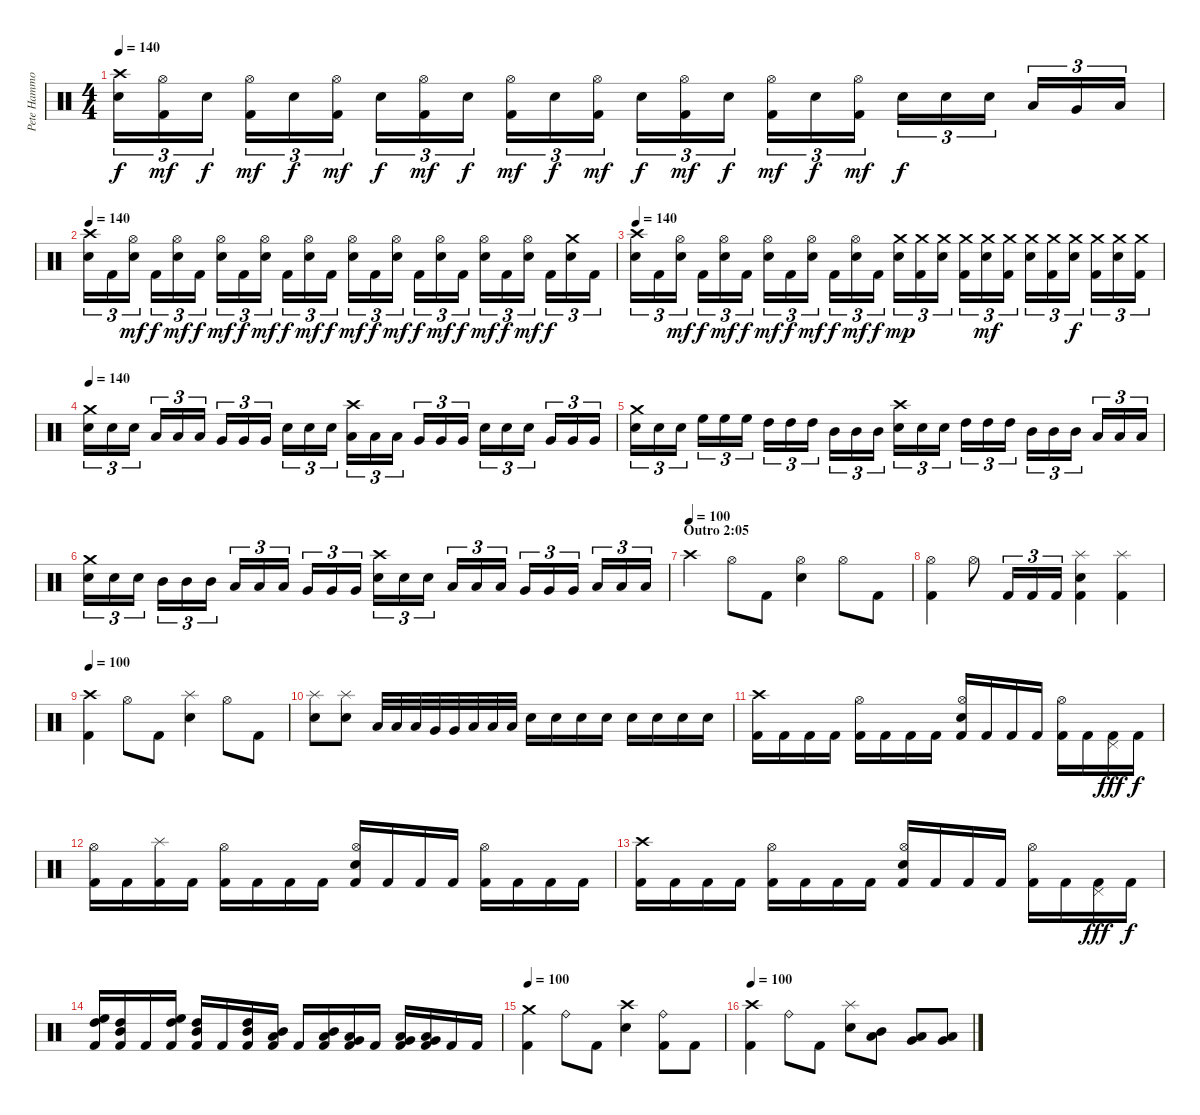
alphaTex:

\track ("Pete Hammoura" "Pete Hammo") {instrument percussion}
\staff {score}
\articulation defaults
\ts (4 4)
\tempo 140
\clef neutral
\ks c
("Crash high (hit)" "Electric Snare (hit)").16{tu (3 2) dy f} ("Hi-Hat (open)" "Kick (hit) 2").16{tu (3 2) dy mf} "Electric Snare (hit)".16{tu (3 2) dy f} ("Hi-Hat (open)" "Kick (hit) 2").16{tu (3 2) dy mf} "Electric Snare (hit)".16{tu (3 2) dy f} ("Hi-Hat (open)" "Kick (hit) 2").16{tu (3 2) dy mf} "Electric Snare (hit)".16{tu (3 2) dy f} ("Hi-Hat (open)" "Kick (hit) 2").16{tu (3 2) dy mf} "Electric Snare (hit)".16{tu (3 2) dy f} ("Hi-Hat (open)" "Kick (hit) 2").16{tu (3 2) dy mf} "Electric Snare (hit)".16{tu (3 2) dy f} ("Hi-Hat (open)" "Kick (hit) 2").16{tu (3 2) dy mf} "Electric Snare (hit)".16{tu (3 2) dy f} ("Hi-Hat (open)" "Kick (hit) 2").16{tu (3 2) dy mf} "Electric Snare (hit)".16{tu (3 2) dy f} ("Hi-Hat (open)" "Kick (hit) 2").16{tu (3 2) dy mf} "Electric Snare (hit)".16{tu (3 2) dy f} ("Hi-Hat (open)" "Kick (hit) 2").16{tu (3 2) dy mf} "Electric Snare (hit)".16{tu (3 2) dy f} "Electric Snare (hit)".16{tu (3 2)} "Electric Snare (hit)".16{tu (3 2)} "Low Tom (hit)".16{tu (3 2)} "Very Low Tom (hit)".16{tu (3 2)} "Low Floor Tom (hit)".16{tu (3 2)} |
\tempo 140
("Crash high (hit)" "Electric Snare (hit)").16{tu (3 2)} "Kick (hit) 2".16{tu (3 2)} ("Hi-Hat (open)" "Electric Snare (hit)").16{tu (3 2) dy mf} "Kick (hit) 2".16{tu (3 2) dy f} ("Hi-Hat (open)" "Electric Snare (hit)").16{tu (3 2) dy mf} "Kick (hit) 2".16{tu (3 2) dy f} ("Hi-Hat (open)" "Electric Snare (hit)").16{tu (3 2) dy mf} "Kick (hit) 2".16{tu (3 2) dy f} ("Hi-Hat (open)" "Electric Snare (hit)").16{tu (3 2) dy mf} "Kick (hit) 2".16{tu (3 2) dy f} ("Hi-Hat (open)" "Electric Snare (hit)").16{tu (3 2) dy mf} "Kick (hit) 2".16{tu (3 2) dy f} ("Hi-Hat (open)" "Electric Snare (hit)").16{tu (3 2) dy mf} "Kick (hit) 2".16{tu (3 2) dy f} ("Hi-Hat (open)" "Electric Snare (hit)").16{tu (3 2) dy mf} "Kick (hit) 2".16{tu (3 2) dy f} ("Hi-Hat (open)" "Electric Snare (hit)").16{tu (3 2) dy mf} "Kick (hit) 2".16{tu (3 2) dy f} ("Hi-Hat (open)" "Electric Snare (hit)").16{tu (3 2) dy mf} "Kick (hit) 2".16{tu (3 2) dy f} ("Hi-Hat (open)" "Electric Snare (hit)").16{tu (3 2) dy mf} "Kick (hit) 2".16{tu (3 2) dy f} ("Crash medium (hit)" "Electric Snare (hit)").16{tu (3 2)} "Kick (hit) 2".16{tu (3 2)} |
\tempo 140
("Crash high (hit)" "Electric Snare (hit)").16{tu (3 2)} "Kick (hit) 2".16{tu (3 2)} ("Hi-Hat (open)" "Electric Snare (hit)").16{tu (3 2) dy mf} "Kick (hit) 2".16{tu (3 2) dy f} ("Hi-Hat (open)" "Electric Snare (hit)").16{tu (3 2) dy mf} "Kick (hit) 2".16{tu (3 2) dy f} ("Hi-Hat (open)" "Electric Snare (hit)").16{tu (3 2) dy mf} "Kick (hit) 2".16{tu (3 2) dy f} ("Hi-Hat (open)" "Electric Snare (hit)").16{tu (3 2) dy mf} "Kick (hit) 2".16{tu (3 2) dy f} ("Hi-Hat (open)" "Electric Snare (hit)").16{tu (3 2) dy mf} "Kick (hit) 2".16{tu (3 2) dy f} ("Crash medium (hit)" "Electric Snare (hit)").16{tu (3 2) dy mp} ("Crash medium (hit)" "Kick (hit) 2").16{tu (3 2)} ("Crash medium (hit)" "Electric Snare (hit)").16{tu (3 2)} ("Crash medium (hit)" "Kick (hit) 2").16{tu (3 2)} ("Crash medium (hit)" "Electric Snare (hit)").16{tu (3 2) dy mf} ("Crash medium (hit)" "Kick (hit) 2").16{tu (3 2)} ("Crash medium (hit)" "Electric Snare (hit)").16{tu (3 2)} ("Crash medium (hit)" "Kick (hit) 2").16{tu (3 2)} ("Crash medium (hit)" "Electric Snare (hit)").16{tu (3 2) dy f} ("Crash medium (hit)" "Kick (hit) 2").16{tu (3 2)} ("Crash medium (hit)" "Electric Snare (hit)").16{tu (3 2)} ("Crash medium (hit)" "Kick (hit) 2").16{tu (3 2)} |
\tempo 140
("Crash medium (hit)" "Electric Snare (hit)").16{tu (3 2)} "Electric Snare (hit)".16{tu (3 2)} "Electric Snare (hit)".16{tu (3 2)} "Low Tom (hit)".16{tu (3 2)} "Low Tom (hit)".16{tu (3 2)} "Low Tom (hit)".16{tu (3 2)} "Very Low Tom (hit)".16{tu (3 2)} "Very Low Tom (hit)".16{tu (3 2)} "Very Low Tom (hit)".16{tu (3 2)} "Electric Snare (hit)".16{tu (3 2)} "Electric Snare (hit)".16{tu (3 2)} "Electric Snare (hit)".16{tu (3 2)} ("Crash high (hit)" "Low Tom (hit)").16{tu (3 2)} "Low Tom (hit)".16{tu (3 2)} "Low Tom (hit)".16{tu (3 2)} "Very Low Tom (hit)".16{tu (3 2)} "Very Low Tom (hit)".16{tu (3 2)} "Very Low Tom (hit)".16{tu (3 2)} "Electric Snare (hit)".16{tu (3 2)} "Electric Snare (hit)".16{tu (3 2)} "Electric Snare (hit)".16{tu (3 2)} "Very Low Tom (hit)".16{tu (3 2)} "Very Low Tom (hit)".16{tu (3 2)} "Very Low Tom (hit)".16{tu (3 2)} |
("Crash medium (hit)" "Electric Snare (hit)").16{tu (3 2)} "Electric Snare (hit)".16{tu (3 2)} "Electric Snare (hit)".16{tu (3 2)} "High Floor Tom (hit)".16{tu (3 2)} "High Floor Tom (hit)".16{tu (3 2)} "High Floor Tom (hit)".16{tu (3 2)} "High Tom (hit)".16{tu (3 2)} "High Tom (hit)".16{tu (3 2)} "High Tom (hit)".16{tu (3 2)} "Mid Tom (hit)".16{tu (3 2)} "Mid Tom (hit)".16{tu (3 2)} "Mid Tom (hit)".16{tu (3 2)} ("Crash high (hit)" "Electric Snare (hit)").16{tu (3 2)} "Electric Snare (hit)".16{tu (3 2)} "Electric Snare (hit)".16{tu (3 2)} "High Tom (hit)".16{tu (3 2)} "High Tom (hit)".16{tu (3 2)} "High Tom (hit)".16{tu (3 2)} "Mid Tom (hit)".16{tu (3 2)} "Mid Tom (hit)".16{tu (3 2)} "Mid Tom (hit)".16{tu (3 2)} "Low Tom (hit)".16{tu (3 2)} "Low Tom (hit)".16{tu (3 2)} "Low Tom (hit)".16{tu (3 2)} |
("Crash medium (hit)" "Electric Snare (hit)").16{tu (3 2)} "Electric Snare (hit)".16{tu (3 2)} "Electric Snare (hit)".16{tu (3 2)} "Mid Tom (hit)".16{tu (3 2)} "Mid Tom (hit)".16{tu (3 2)} "Mid Tom (hit)".16{tu (3 2)} "Low Tom (hit)".16{tu (3 2)} "Low Tom (hit)".16{tu (3 2)} "Low Tom (hit)".16{tu (3 2)} "Very Low Tom (hit)".16{tu (3 2)} "Very Low Tom (hit)".16{tu (3 2)} "Very Low Tom (hit)".16{tu (3 2)} ("Crash high (hit)" "Electric Snare (hit)").16{tu (3 2)} "Electric Snare (hit)".16{tu (3 2)} "Electric Snare (hit)".16{tu (3 2)} "Low Tom (hit)".16{tu (3 2)} "Low Tom (hit)".16{tu (3 2)} "Low Tom (hit)".16{tu (3 2)} "Very Low Tom (hit)".16{tu (3 2)} "Very Low Tom (hit)".16{tu (3 2)} "Very Low Tom (hit)".16{tu (3 2)} "Low Floor Tom (hit)".16{tu (3 2)} "Low Floor Tom (hit)".16{tu (3 2)} "Low Floor Tom (hit)".16{tu (3 2)} |
\section ("" "Outro 2:05")
\tempo (100)
"Crash high (hit)".4 "Hi-Hat (open)".8 "Kick (hit) 2".8 ("Hi-Hat (open)" "Electric Snare (hit)").4 "Hi-Hat (open)".8 "Kick (hit) 2".8 |
("Hi-Hat (open)" "Kick (hit) 2").4 "Hi-Hat (open)".8 "Kick (hit) 2".16{tu (3 2)} "Kick (hit) 2".16{tu (3 2)} "Kick (hit) 2".16{tu (3 2)} ("Splash (hit)" "Electric Snare (hit)" "Kick (hit) 2").4 ("Splash (hit)" "Kick (hit) 2").4 |
\tempo 100
("Crash high (hit)" "Kick (hit) 2").4 "Hi-Hat (open)".8 "Kick (hit) 2".8 ("Splash (hit)" "Electric Snare (hit)").4 "Hi-Hat (open)".8 "Kick (hit) 2".8 |
("Splash (hit)" "Electric Snare (hit)").8 ("Splash (hit)" "Electric Snare (hit)").8 "Low Tom (hit)".32 "Low Tom (hit)".32 "Low Tom (hit)".32 "Very Low Tom (hit)".32 "Very Low Tom (hit)".32 "Low Floor Tom (hit)".32 "Low Floor Tom (hit)".32 "Low Floor Tom (hit)".32 "Electric Snare (hit)".16 "Electric Snare (hit)".16 "Electric Snare (hit)".16 "Electric Snare (hit)".16 "Electric Snare (hit)".16 "Electric Snare (hit)".16 "Electric Snare (hit)".16 "Electric Snare (hit)".16 |
("Crash high (hit)" "Kick (hit) 2").16 "Kick (hit) 2".16 "Kick (hit) 2".16 "Kick (hit) 2".16 ("Hi-Hat (open)" "Kick (hit) 2").16 "Kick (hit) 2".16 "Kick (hit) 2".16 "Kick (hit) 2".16 ("Hi-Hat (open)" "Electric Snare (hit)" "Kick (hit) 2").16 "Kick (hit) 2".16 "Kick (hit) 2".16 "Kick (hit) 2".16 ("Hi-Hat (open)" "Kick (hit) 2").16 "Kick (hit) 2".16 ("Pedal Hi-Hat (hit)" "Kick (hit) 2").16{dy fff} "Kick (hit) 2".16{dy f} |
("Hi-Hat (open)" "Kick (hit) 2").16 "Kick (hit) 2".16 ("Splash (hit)" "Kick (hit) 2").16 "Kick (hit) 2".16 ("Hi-Hat (open)" "Kick (hit) 2").16 "Kick (hit) 2".16 "Kick (hit) 2".16 "Kick (hit) 2".16 ("Hi-Hat (open)" "Electric Snare (hit)" "Kick (hit) 2").16 "Kick (hit) 2".16 "Kick (hit) 2".16 "Kick (hit) 2".16 ("Hi-Hat (open)" "Kick (hit) 2").16 "Kick (hit) 2".16 "Kick (hit) 2".16 "Kick (hit) 2".16 |
("Crash high (hit)" "Kick (hit) 2").16 "Kick (hit) 2".16 "Kick (hit) 2".16 "Kick (hit) 2".16 ("Hi-Hat (open)" "Kick (hit) 2").16 "Kick (hit) 2".16 "Kick (hit) 2".16 "Kick (hit) 2".16 ("Hi-Hat (open)" "Electric Snare (hit)" "Kick (hit) 2").16 "Kick (hit) 2".16 "Kick (hit) 2".16 "Kick (hit) 2".16 ("Hi-Hat (open)" "Kick (hit) 2").16 "Kick (hit) 2".16 ("Pedal Hi-Hat (hit)" "Kick (hit) 2").16{dy fff} "Kick (hit) 2".16{dy f} |
("High Floor Tom (hit)" "High Tom (hit)" "Kick (hit) 2").16 ("High Tom (hit)" "Mid Tom (hit)" "Kick (hit) 2").16 "Kick (hit) 2".16 ("High Tom (hit)" "High Floor Tom (hit)" "Kick (hit) 2").16 ("Mid Tom (hit)" "High Tom (hit)" "Kick (hit) 2").16 "Kick (hit) 2".16 ("Mid Tom (hit)" "High Tom (hit)" "Kick (hit) 2").16 ("Low Tom (hit)" "Mid Tom (hit)" "Kick (hit) 2").16 "Kick (hit) 2".16 ("Low Tom (hit)" "Mid Tom (hit)" "Kick (hit) 2").16 ("Very Low Tom (hit)" "Low Tom (hit)" "Kick (hit) 2").16 "Kick (hit) 2".16 ("Very Low Tom (hit)" "Low Tom (hit)" "Kick (hit) 2").16 ("Low Floor Tom (hit)" "Very Low Tom (hit)" "Kick (hit) 2").16 "Kick (hit) 2".16 "Kick (hit) 2".16 |
\tempo 100
("Crash medium (hit)" "Kick (hit) 2").4 "Ride (bell)".8 "Kick (hit) 2".8 ("Crash high (hit)" "Electric Snare (hit)").4 ("Ride (bell)" "Kick (hit) 2").8 "Kick (hit) 2".8 |
\tempo 100
("Crash high (hit)" "Kick (hit) 2").4 "Ride (bell)".8 "Kick (hit) 2".8 ("Splash (hit)" "Electric Snare (hit)").8 ("Mid Tom (hit)" "Low Tom (hit)").8 ("Low Tom (hit)" "Very Low Tom (hit)").8 ("Very Low Tom (hit)" "Low Floor Tom (hit)").8
